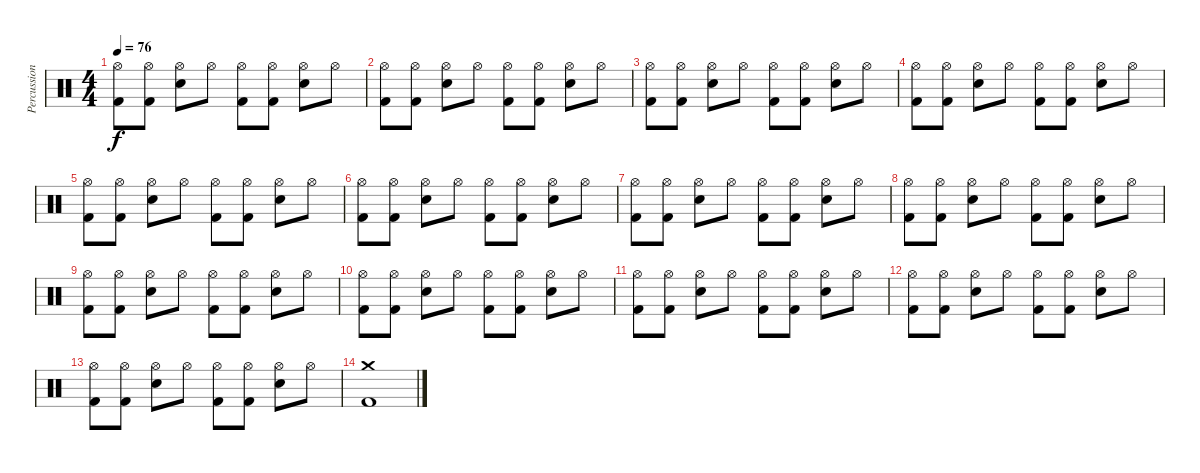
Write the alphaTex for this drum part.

\track ("Percussions" "Percussion") {instrument percussion}
\staff {score}
\articulation defaults
\ts (4 4)
\tempo 76
\clef neutral
\ks c
("Hi-Hat (open)" "Kick (hit) 2").8{dy f} ("Hi-Hat (open)" "Kick (hit) 2").8 ("Hi-Hat (open)" "Electric Snare (hit)").8 "Hi-Hat (open)".8 ("Hi-Hat (open)" "Kick (hit) 2").8 ("Hi-Hat (open)" "Kick (hit) 2").8 ("Hi-Hat (open)" "Electric Snare (hit)").8 "Hi-Hat (open)".8 |
("Hi-Hat (open)" "Kick (hit) 2").8 ("Hi-Hat (open)" "Kick (hit) 2").8 ("Hi-Hat (open)" "Electric Snare (hit)").8 "Hi-Hat (open)".8 ("Hi-Hat (open)" "Kick (hit) 2").8 ("Hi-Hat (open)" "Kick (hit) 2").8 ("Hi-Hat (open)" "Electric Snare (hit)").8 "Hi-Hat (open)".8 |
("Hi-Hat (open)" "Kick (hit) 2").8 ("Hi-Hat (open)" "Kick (hit) 2").8 ("Hi-Hat (open)" "Electric Snare (hit)").8 "Hi-Hat (open)".8 ("Hi-Hat (open)" "Kick (hit) 2").8 ("Hi-Hat (open)" "Kick (hit) 2").8 ("Hi-Hat (open)" "Electric Snare (hit)").8 "Hi-Hat (open)".8 |
("Hi-Hat (open)" "Kick (hit) 2").8 ("Hi-Hat (open)" "Kick (hit) 2").8 ("Hi-Hat (open)" "Electric Snare (hit)").8 "Hi-Hat (open)".8 ("Hi-Hat (open)" "Kick (hit) 2").8 ("Hi-Hat (open)" "Kick (hit) 2").8 ("Hi-Hat (open)" "Electric Snare (hit)").8 "Hi-Hat (open)".8 |
("Hi-Hat (open)" "Kick (hit) 2").8 ("Hi-Hat (open)" "Kick (hit) 2").8 ("Hi-Hat (open)" "Electric Snare (hit)").8 "Hi-Hat (open)".8 ("Hi-Hat (open)" "Kick (hit) 2").8 ("Hi-Hat (open)" "Kick (hit) 2").8 ("Hi-Hat (open)" "Electric Snare (hit)").8 "Hi-Hat (open)".8 |
("Hi-Hat (open)" "Kick (hit) 2").8 ("Hi-Hat (open)" "Kick (hit) 2").8 ("Hi-Hat (open)" "Electric Snare (hit)").8 "Hi-Hat (open)".8 ("Hi-Hat (open)" "Kick (hit) 2").8 ("Hi-Hat (open)" "Kick (hit) 2").8 ("Hi-Hat (open)" "Electric Snare (hit)").8 "Hi-Hat (open)".8 |
("Hi-Hat (open)" "Kick (hit) 2").8 ("Hi-Hat (open)" "Kick (hit) 2").8 ("Hi-Hat (open)" "Electric Snare (hit)").8 "Hi-Hat (open)".8 ("Hi-Hat (open)" "Kick (hit) 2").8 ("Hi-Hat (open)" "Kick (hit) 2").8 ("Hi-Hat (open)" "Electric Snare (hit)").8 "Hi-Hat (open)".8 |
("Hi-Hat (open)" "Kick (hit) 2").8 ("Hi-Hat (open)" "Kick (hit) 2").8 ("Hi-Hat (open)" "Electric Snare (hit)").8 "Hi-Hat (open)".8 ("Hi-Hat (open)" "Kick (hit) 2").8 ("Hi-Hat (open)" "Kick (hit) 2").8 ("Hi-Hat (open)" "Electric Snare (hit)").8 "Hi-Hat (open)".8 |
("Hi-Hat (open)" "Kick (hit) 2").8 ("Hi-Hat (open)" "Kick (hit) 2").8 ("Hi-Hat (open)" "Electric Snare (hit)").8 "Hi-Hat (open)".8 ("Hi-Hat (open)" "Kick (hit) 2").8 ("Hi-Hat (open)" "Kick (hit) 2").8 ("Hi-Hat (open)" "Electric Snare (hit)").8 "Hi-Hat (open)".8 |
("Hi-Hat (open)" "Kick (hit) 2").8 ("Hi-Hat (open)" "Kick (hit) 2").8 ("Hi-Hat (open)" "Electric Snare (hit)").8 "Hi-Hat (open)".8 ("Hi-Hat (open)" "Kick (hit) 2").8 ("Hi-Hat (open)" "Kick (hit) 2").8 ("Hi-Hat (open)" "Electric Snare (hit)").8 "Hi-Hat (open)".8 |
("Hi-Hat (open)" "Kick (hit) 2").8 ("Hi-Hat (open)" "Kick (hit) 2").8 ("Hi-Hat (open)" "Electric Snare (hit)").8 "Hi-Hat (open)".8 ("Hi-Hat (open)" "Kick (hit) 2").8 ("Hi-Hat (open)" "Kick (hit) 2").8 ("Hi-Hat (open)" "Electric Snare (hit)").8 "Hi-Hat (open)".8 |
("Hi-Hat (open)" "Kick (hit) 2").8 ("Hi-Hat (open)" "Kick (hit) 2").8 ("Hi-Hat (open)" "Electric Snare (hit)").8 "Hi-Hat (open)".8 ("Hi-Hat (open)" "Kick (hit) 2").8 ("Hi-Hat (open)" "Kick (hit) 2").8 ("Hi-Hat (open)" "Electric Snare (hit)").8 "Hi-Hat (open)".8 |
("Hi-Hat (open)" "Kick (hit) 2").8 ("Hi-Hat (open)" "Kick (hit) 2").8 ("Hi-Hat (open)" "Electric Snare (hit)").8 "Hi-Hat (open)".8 ("Hi-Hat (open)" "Kick (hit) 2").8 ("Hi-Hat (open)" "Kick (hit) 2").8 ("Hi-Hat (open)" "Electric Snare (hit)").8 "Hi-Hat (open)".8 |
("Crash medium (hit)" "Kick (hit) 2").1
